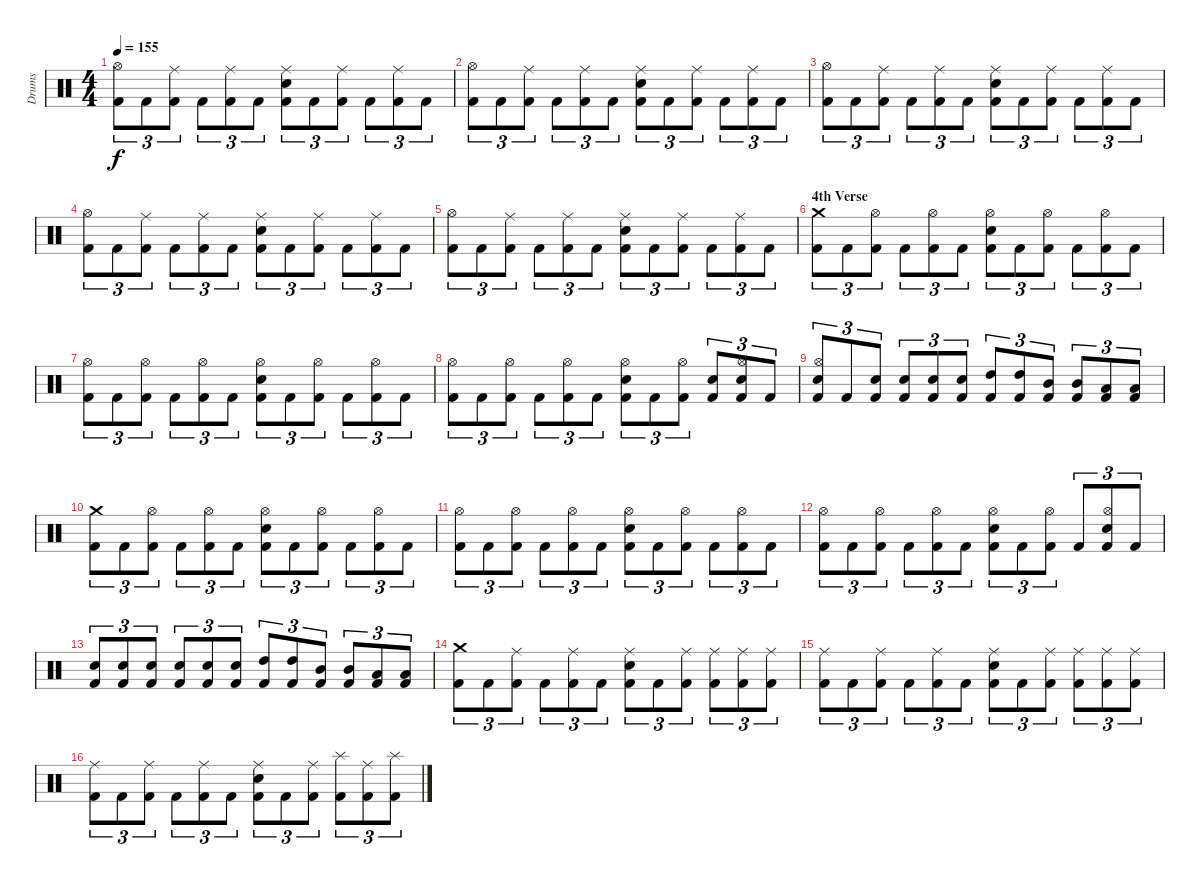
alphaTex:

\track ("Drums" "Drums") {instrument percussion}
\staff {score}
\articulation defaults
\ts (4 4)
\tempo 155
\clef neutral
\ks c
("Kick (hit) 2" "Hi-Hat (open)").8{tu (3 2) dy f} "Kick (hit) 2".8{tu (3 2)} ("Kick (hit) 2" "Ride (middle)").8{tu (3 2)} "Kick (hit) 2".8{tu (3 2)} ("Kick (hit) 2" "Ride (middle)").8{tu (3 2)} "Kick (hit) 2".8{tu (3 2)} ("Kick (hit) 2" "Electric Snare (hit)" "Ride (middle)").8{tu (3 2)} "Kick (hit) 2".8{tu (3 2)} ("Kick (hit) 2" "Ride (middle)").8{tu (3 2)} "Kick (hit) 2".8{tu (3 2)} ("Kick (hit) 2" "Ride (middle)").8{tu (3 2)} "Kick (hit) 2".8{tu (3 2)} |
("Kick (hit) 2" "Hi-Hat (open)").8{tu (3 2)} "Kick (hit) 2".8{tu (3 2)} ("Kick (hit) 2" "Ride (middle)").8{tu (3 2)} "Kick (hit) 2".8{tu (3 2)} ("Kick (hit) 2" "Ride (middle)").8{tu (3 2)} "Kick (hit) 2".8{tu (3 2)} ("Kick (hit) 2" "Electric Snare (hit)" "Ride (middle)").8{tu (3 2)} "Kick (hit) 2".8{tu (3 2)} ("Kick (hit) 2" "Ride (middle)").8{tu (3 2)} "Kick (hit) 2".8{tu (3 2)} ("Kick (hit) 2" "Ride (middle)").8{tu (3 2)} "Kick (hit) 2".8{tu (3 2)} |
("Kick (hit) 2" "Hi-Hat (open)").8{tu (3 2)} "Kick (hit) 2".8{tu (3 2)} ("Kick (hit) 2" "Ride (middle)").8{tu (3 2)} "Kick (hit) 2".8{tu (3 2)} ("Kick (hit) 2" "Ride (middle)").8{tu (3 2)} "Kick (hit) 2".8{tu (3 2)} ("Kick (hit) 2" "Electric Snare (hit)" "Ride (middle)").8{tu (3 2)} "Kick (hit) 2".8{tu (3 2)} ("Kick (hit) 2" "Ride (middle)").8{tu (3 2)} "Kick (hit) 2".8{tu (3 2)} ("Kick (hit) 2" "Ride (middle)").8{tu (3 2)} "Kick (hit) 2".8{tu (3 2)} |
("Kick (hit) 2" "Hi-Hat (open)").8{tu (3 2)} "Kick (hit) 2".8{tu (3 2)} ("Kick (hit) 2" "Ride (middle)").8{tu (3 2)} "Kick (hit) 2".8{tu (3 2)} ("Kick (hit) 2" "Ride (middle)").8{tu (3 2)} "Kick (hit) 2".8{tu (3 2)} ("Kick (hit) 2" "Electric Snare (hit)" "Ride (middle)").8{tu (3 2)} "Kick (hit) 2".8{tu (3 2)} ("Kick (hit) 2" "Ride (middle)").8{tu (3 2)} "Kick (hit) 2".8{tu (3 2)} ("Kick (hit) 2" "Ride (middle)").8{tu (3 2)} "Kick (hit) 2".8{tu (3 2)} |
("Kick (hit) 2" "Hi-Hat (open)").8{tu (3 2)} "Kick (hit) 2".8{tu (3 2)} ("Kick (hit) 2" "Ride (middle)").8{tu (3 2)} "Kick (hit) 2".8{tu (3 2)} ("Kick (hit) 2" "Ride (middle)").8{tu (3 2)} "Kick (hit) 2".8{tu (3 2)} ("Kick (hit) 2" "Electric Snare (hit)" "Ride (middle)").8{tu (3 2)} "Kick (hit) 2".8{tu (3 2)} ("Kick (hit) 2" "Ride (middle)").8{tu (3 2)} "Kick (hit) 2".8{tu (3 2)} ("Kick (hit) 2" "Ride (middle)").8{tu (3 2)} "Kick (hit) 2".8{tu (3 2)} |
\section ("" "4th Verse")
("Kick (hit) 2" "Crash medium (hit)").8{tu (3 2)} "Kick (hit) 2".8{tu (3 2)} ("Kick (hit) 2" "Hi-Hat (open)").8{tu (3 2)} "Kick (hit) 2".8{tu (3 2)} ("Kick (hit) 2" "Hi-Hat (open)").8{tu (3 2)} "Kick (hit) 2".8{tu (3 2)} ("Kick (hit) 2" "Electric Snare (hit)" "Hi-Hat (open)").8{tu (3 2)} "Kick (hit) 2".8{tu (3 2)} ("Kick (hit) 2" "Hi-Hat (open)").8{tu (3 2)} "Kick (hit) 2".8{tu (3 2)} ("Kick (hit) 2" "Hi-Hat (open)").8{tu (3 2)} "Kick (hit) 2".8{tu (3 2)} |
("Kick (hit) 2" "Hi-Hat (open)").8{tu (3 2)} "Kick (hit) 2".8{tu (3 2)} ("Kick (hit) 2" "Hi-Hat (open)").8{tu (3 2)} "Kick (hit) 2".8{tu (3 2)} ("Kick (hit) 2" "Hi-Hat (open)").8{tu (3 2)} "Kick (hit) 2".8{tu (3 2)} ("Kick (hit) 2" "Electric Snare (hit)" "Hi-Hat (open)").8{tu (3 2)} "Kick (hit) 2".8{tu (3 2)} ("Kick (hit) 2" "Hi-Hat (open)").8{tu (3 2)} "Kick (hit) 2".8{tu (3 2)} ("Kick (hit) 2" "Hi-Hat (open)").8{tu (3 2)} "Kick (hit) 2".8{tu (3 2)} |
("Kick (hit) 2" "Hi-Hat (open)").8{tu (3 2)} "Kick (hit) 2".8{tu (3 2)} ("Kick (hit) 2" "Hi-Hat (open)").8{tu (3 2)} "Kick (hit) 2".8{tu (3 2)} ("Kick (hit) 2" "Hi-Hat (open)").8{tu (3 2)} "Kick (hit) 2".8{tu (3 2)} ("Kick (hit) 2" "Electric Snare (hit)" "Hi-Hat (open)").8{tu (3 2)} "Kick (hit) 2".8{tu (3 2)} ("Kick (hit) 2" "Hi-Hat (open)").8{tu (3 2)} ("Kick (hit) 2" "Electric Snare (hit)").8{tu (3 2)} ("Kick (hit) 2" "Electric Snare (hit)" "Hi-Hat (open)").8{tu (3 2)} "Kick (hit) 2".8{tu (3 2)} |
("Kick (hit) 2" "Electric Snare (hit)" "Hi-Hat (open)").8{tu (3 2)} "Kick (hit) 2".8{tu (3 2)} ("Kick (hit) 2" "Electric Snare (hit)").8{tu (3 2)} ("Kick (hit) 2" "Electric Snare (hit)").8{tu (3 2)} ("Kick (hit) 2" "Electric Snare (hit)").8{tu (3 2)} ("Kick (hit) 2" "Electric Snare (hit)").8{tu (3 2)} ("Kick (hit) 2" "High Tom (hit)").8{tu (3 2)} ("Kick (hit) 2" "High Tom (hit)").8{tu (3 2)} ("Kick (hit) 2" "Mid Tom (hit)").8{tu (3 2)} ("Kick (hit) 2" "Mid Tom (hit)").8{tu (3 2)} ("Kick (hit) 2" "Low Tom (hit)").8{tu (3 2)} ("Kick (hit) 2" "Low Tom (hit)").8{tu (3 2)} |
("Kick (hit) 2" "Crash medium (hit)").8{tu (3 2)} "Kick (hit) 2".8{tu (3 2)} ("Kick (hit) 2" "Hi-Hat (open)").8{tu (3 2)} "Kick (hit) 2".8{tu (3 2)} ("Kick (hit) 2" "Hi-Hat (open)").8{tu (3 2)} "Kick (hit) 2".8{tu (3 2)} ("Kick (hit) 2" "Electric Snare (hit)" "Hi-Hat (open)").8{tu (3 2)} "Kick (hit) 2".8{tu (3 2)} ("Kick (hit) 2" "Hi-Hat (open)").8{tu (3 2)} "Kick (hit) 2".8{tu (3 2)} ("Kick (hit) 2" "Hi-Hat (open)").8{tu (3 2)} "Kick (hit) 2".8{tu (3 2)} |
("Kick (hit) 2" "Hi-Hat (open)").8{tu (3 2)} "Kick (hit) 2".8{tu (3 2)} ("Kick (hit) 2" "Hi-Hat (open)").8{tu (3 2)} "Kick (hit) 2".8{tu (3 2)} ("Kick (hit) 2" "Hi-Hat (open)").8{tu (3 2)} "Kick (hit) 2".8{tu (3 2)} ("Kick (hit) 2" "Electric Snare (hit)" "Hi-Hat (open)").8{tu (3 2)} "Kick (hit) 2".8{tu (3 2)} ("Kick (hit) 2" "Hi-Hat (open)").8{tu (3 2)} "Kick (hit) 2".8{tu (3 2)} ("Kick (hit) 2" "Hi-Hat (open)").8{tu (3 2)} "Kick (hit) 2".8{tu (3 2)} |
("Kick (hit) 2" "Hi-Hat (open)").8{tu (3 2)} "Kick (hit) 2".8{tu (3 2)} ("Kick (hit) 2" "Hi-Hat (open)").8{tu (3 2)} "Kick (hit) 2".8{tu (3 2)} ("Kick (hit) 2" "Hi-Hat (open)").8{tu (3 2)} "Kick (hit) 2".8{tu (3 2)} ("Kick (hit) 2" "Electric Snare (hit)" "Hi-Hat (open)").8{tu (3 2)} "Kick (hit) 2".8{tu (3 2)} ("Kick (hit) 2" "Hi-Hat (open)").8{tu (3 2)} "Kick (hit) 2".8{tu (3 2)} ("Kick (hit) 2" "Electric Snare (hit)" "Hi-Hat (open)").8{tu (3 2)} "Kick (hit) 2".8{tu (3 2)} |
("Kick (hit) 2" "Electric Snare (hit)").8{tu (3 2)} ("Kick (hit) 2" "Electric Snare (hit)").8{tu (3 2)} ("Kick (hit) 2" "Electric Snare (hit)").8{tu (3 2)} ("Kick (hit) 2" "Electric Snare (hit)").8{tu (3 2)} ("Kick (hit) 2" "Electric Snare (hit)").8{tu (3 2)} ("Kick (hit) 2" "Electric Snare (hit)").8{tu (3 2)} ("Kick (hit) 2" "High Tom (hit)").8{tu (3 2)} ("Kick (hit) 2" "High Tom (hit)").8{tu (3 2)} ("Kick (hit) 2" "Mid Tom (hit)").8{tu (3 2)} ("Kick (hit) 2" "Mid Tom (hit)").8{tu (3 2)} ("Kick (hit) 2" "Low Tom (hit)").8{tu (3 2)} ("Kick (hit) 2" "Low Tom (hit)").8{tu (3 2)} |
("Kick (hit) 2" "Crash medium (hit)").8{tu (3 2)} "Kick (hit) 2".8{tu (3 2)} ("Kick (hit) 2" "Ride (middle)").8{tu (3 2)} "Kick (hit) 2".8{tu (3 2)} ("Kick (hit) 2" "Ride (middle)").8{tu (3 2)} "Kick (hit) 2".8{tu (3 2)} ("Kick (hit) 2" "Electric Snare (hit)" "Ride (middle)").8{tu (3 2)} "Kick (hit) 2".8{tu (3 2)} ("Kick (hit) 2" "Ride (middle)").8{tu (3 2)} ("Kick (hit) 2" "Ride (middle)").8{tu (3 2)} ("Kick (hit) 2" "Ride (middle)").8{tu (3 2)} ("Kick (hit) 2" "Ride (middle)").8{tu (3 2)} |
("Kick (hit) 2" "Ride (middle)").8{tu (3 2)} "Kick (hit) 2".8{tu (3 2)} ("Kick (hit) 2" "Ride (middle)").8{tu (3 2)} "Kick (hit) 2".8{tu (3 2)} ("Kick (hit) 2" "Ride (middle)").8{tu (3 2)} "Kick (hit) 2".8{tu (3 2)} ("Kick (hit) 2" "Electric Snare (hit)" "Ride (middle)").8{tu (3 2)} "Kick (hit) 2".8{tu (3 2)} ("Kick (hit) 2" "Ride (middle)").8{tu (3 2)} ("Kick (hit) 2" "Ride (middle)").8{tu (3 2)} ("Kick (hit) 2" "Ride (middle)").8{tu (3 2)} ("Kick (hit) 2" "Ride (middle)").8{tu (3 2)} |
("Kick (hit) 2" "Ride (middle)").8{tu (3 2)} "Kick (hit) 2".8{tu (3 2)} ("Kick (hit) 2" "Ride (middle)").8{tu (3 2)} "Kick (hit) 2".8{tu (3 2)} ("Kick (hit) 2" "Ride (middle)").8{tu (3 2)} "Kick (hit) 2".8{tu (3 2)} ("Kick (hit) 2" "Electric Snare (hit)" "Ride (middle)").8{tu (3 2)} "Kick (hit) 2".8{tu (3 2)} ("Kick (hit) 2" "Ride (middle)").8{tu (3 2)} ("Kick (hit) 2" "Splash (hit)").8{tu (3 2)} ("Kick (hit) 2" "Ride (middle)").8{tu (3 2)} ("Kick (hit) 2" "Splash (hit)").8{tu (3 2)}
